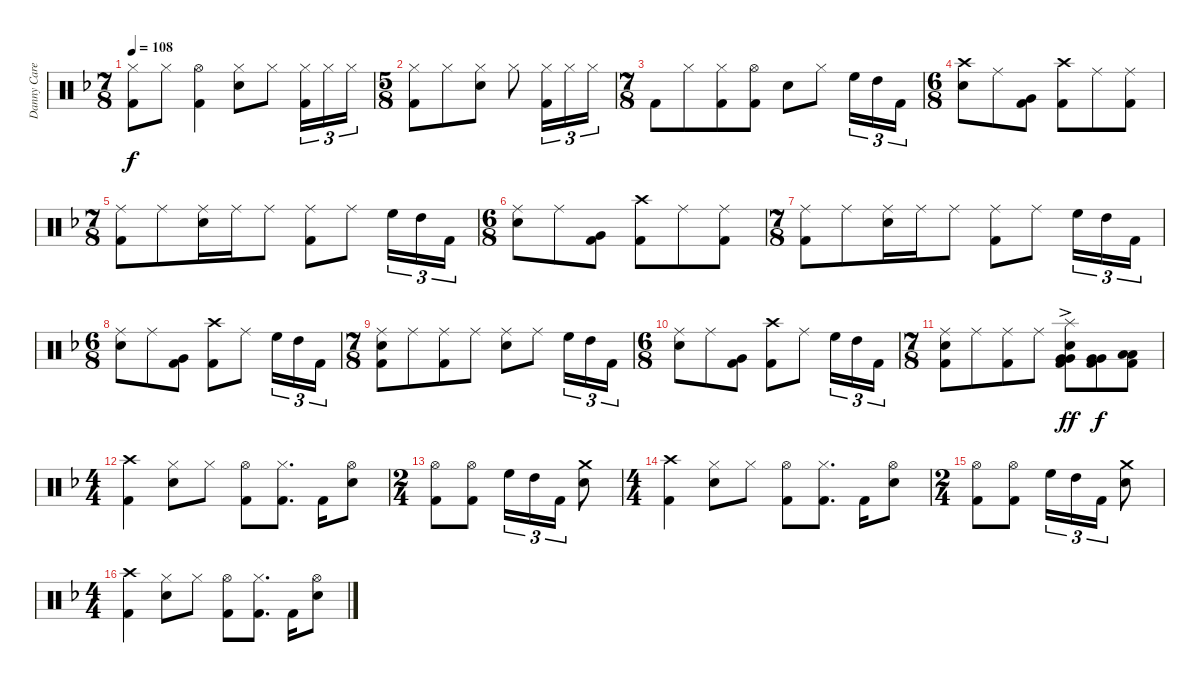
\track ("Danny Carey" "Danny Care") {instrument percussion}
\staff {score}
\articulation defaults
\ts (7 8)
\tempo 108
\clef neutral
\ks dminor
("Hi-Hat (closed)" "Kick (hit) 2").8{dy f} "Hi-Hat (closed)".8 ("Hi-Hat (open)" "Kick (hit) 2").4 ("Hi-Hat (closed)" "Electric Snare (hit)").8 "Hi-Hat (closed)".8 ("Hi-Hat (closed)" "Kick (hit) 2").16{tu (3 2)} "Hi-Hat (closed)".16{tu (3 2)} "Hi-Hat (closed)".16{tu (3 2)} |
\ts (5 8)
("Hi-Hat (closed)" "Kick (hit) 2").8 "Hi-Hat (closed)".8 ("Hi-Hat (closed)" "Electric Snare (hit)").8 "Hi-Hat (closed)".8 ("Hi-Hat (closed)" "Kick (hit) 2").16{tu (3 2)} "Hi-Hat (closed)".16{tu (3 2)} "Hi-Hat (closed)".16{tu (3 2)} |
\ts (7 8)
"Kick (hit) 2".8 "Hi-Hat (closed)".8 ("Hi-Hat (closed)" "Kick (hit) 2").8 ("Hi-Hat (open)" "Kick (hit) 2").8 "Electric Snare (hit)".8 "Hi-Hat (closed)".8 "High Floor Tom (hit)".16{tu (3 2)} "High Tom (hit)".16{tu (3 2)} "Kick (hit) 2".16{tu (3 2)} |
\ts (6 8)
("Crash high (hit)" "Electric Snare (hit)").8 "Ride (middle)".8 ("Very Low Tom (hit)" "Kick (hit) 2").8 ("Crash high (hit)" "Kick (hit) 2").8 "Ride (middle)".8 ("Ride (middle)" "Kick (hit) 2").8 |
\ts (7 8)
("Ride (middle)" "Kick (hit) 2").8 "Ride (middle)".8 ("Ride (middle)" "Electric Snare (hit)").16 "Ride (middle)".16 "Ride (middle)".8 ("Ride (middle)" "Kick (hit) 2").8 "Ride (middle)".8 "High Floor Tom (hit)".16{tu (3 2)} "High Tom (hit)".16{tu (3 2)} "Kick (hit) 2".16{tu (3 2)} |
\ts (6 8)
("Ride (middle)" "Electric Snare (hit)").8 "Ride (middle)".8 ("Very Low Tom (hit)" "Kick (hit) 2").8 ("Crash high (hit)" "Kick (hit) 2").8 "Ride (middle)".8 ("Ride (middle)" "Kick (hit) 2").8 |
\ts (7 8)
("Ride (middle)" "Kick (hit) 2").8 "Ride (middle)".8 ("Ride (middle)" "Electric Snare (hit)").16 "Ride (middle)".16 "Ride (middle)".8 ("Ride (middle)" "Kick (hit) 2").8 "Ride (middle)".8 "High Floor Tom (hit)".16{tu (3 2)} "High Tom (hit)".16{tu (3 2)} "Kick (hit) 2".16{tu (3 2)} |
\ts (6 8)
("Ride (middle)" "Electric Snare (hit)").8 "Ride (middle)".8 ("Very Low Tom (hit)" "Kick (hit) 2").8 ("Crash high (hit)" "Kick (hit) 2").8 "Ride (middle)".8 "High Floor Tom (hit)".16{tu (3 2)} "High Tom (hit)".16{tu (3 2)} "Kick (hit) 2".16{tu (3 2)} |
\ts (7 8)
("Ride (middle)" "Electric Snare (hit)" "Kick (hit) 2").8 "Ride (middle)".8 ("Ride (middle)" "Kick (hit) 2").8 "Ride (middle)".8 ("Ride (middle)" "Electric Snare (hit)").8 "Ride (middle)".8 "High Floor Tom (hit)".16{tu (3 2)} "High Tom (hit)".16{tu (3 2)} "Kick (hit) 2".16{tu (3 2)} |
\ts (6 8)
("Ride (middle)" "Electric Snare (hit)").8 "Ride (middle)".8 ("Very Low Tom (hit)" "Kick (hit) 2").8 ("Crash high (hit)" "Kick (hit) 2").8 "Ride (middle)".8 "High Floor Tom (hit)".16{tu (3 2)} "High Tom (hit)".16{tu (3 2)} "Kick (hit) 2".16{tu (3 2)} |
\ts (7 8)
("Ride (middle)" "Electric Snare (hit)" "Kick (hit) 2").8 "Ride (middle)".8 ("Ride (middle)" "Kick (hit) 2").8 "Ride (middle)".8 ("Splash (hit)" "Very Low Tom (hit)" "Very Low Tom (hit)" "Electric Snare (hit)" "Kick (hit) 2"{ac}).8{dy ff} ("Very Low Tom (hit)" "Very Low Tom (hit)" "Kick (hit) 2").8{dy f} ("Low Floor Tom (hit)" "Low Floor Tom (hit)" "Kick (hit) 2").8 |
\ts (4 4)
("Crash high (hit)" "Kick (hit) 2").4 ("Hi-Hat (closed)" "Electric Snare (hit)").8 "Hi-Hat (closed)".8 ("Hi-Hat (open)" "Kick (hit) 2").8 ("Hi-Hat (closed)" "Kick (hit) 2").8{d} "Kick (hit) 2".16 ("Hi-Hat (open)" "Electric Snare (hit)").8 |
\ts (2 4)
("Hi-Hat (open)" "Kick (hit) 2").8 ("Hi-Hat (open)" "Kick (hit) 2").8 "High Floor Tom (hit)".16{tu (3 2)} "High Tom (hit)".16{tu (3 2)} "Kick (hit) 2".16{tu (3 2)} ("Crash medium (hit)" "Electric Snare (hit)").8 |
\ts (4 4)
("Crash high (hit)" "Kick (hit) 2").4 ("Hi-Hat (closed)" "Electric Snare (hit)").8 "Hi-Hat (closed)".8 ("Hi-Hat (open)" "Kick (hit) 2").8 ("Hi-Hat (closed)" "Kick (hit) 2").8{d} "Kick (hit) 2".16 ("Hi-Hat (open)" "Electric Snare (hit)").8 |
\ts (2 4)
("Hi-Hat (open)" "Kick (hit) 2").8 ("Hi-Hat (open)" "Kick (hit) 2").8 "High Floor Tom (hit)".16{tu (3 2)} "High Tom (hit)".16{tu (3 2)} "Kick (hit) 2".16{tu (3 2)} ("Crash medium (hit)" "Electric Snare (hit)").8 |
\ts (4 4)
("Crash high (hit)" "Kick (hit) 2").4 ("Hi-Hat (closed)" "Electric Snare (hit)").8 "Hi-Hat (closed)".8 ("Hi-Hat (open)" "Kick (hit) 2").8 ("Hi-Hat (closed)" "Kick (hit) 2").8{d} "Kick (hit) 2".16 ("Hi-Hat (open)" "Electric Snare (hit)").8
